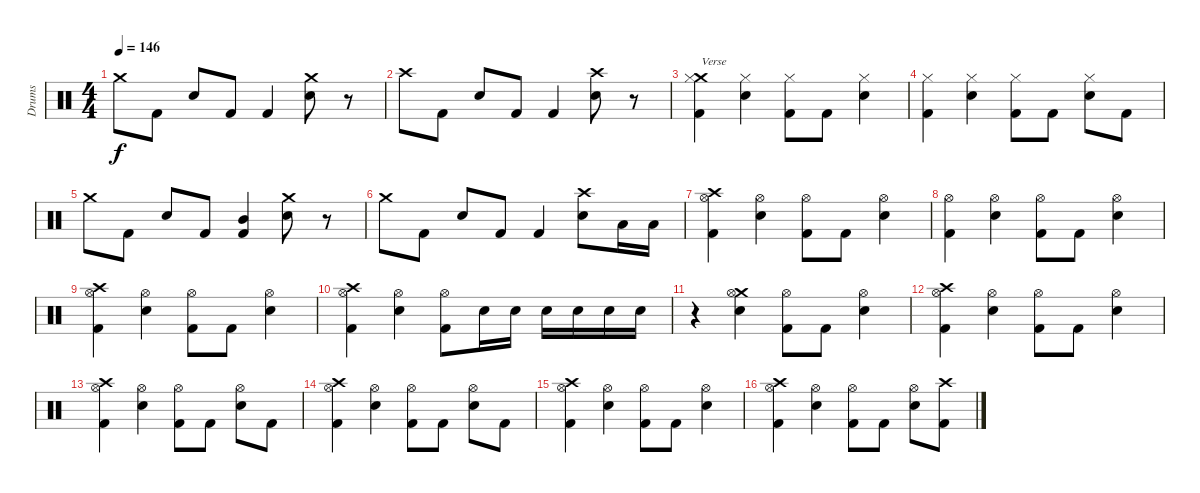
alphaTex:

\track ("Drums" "Drums") {instrument percussion}
\staff {score}
\articulation defaults
\ts (4 4)
\tempo 146
\clef neutral
\ks c "Crash medium (hit)".8{dy f} "Kick (hit) 2".8 "Electric Snare (hit)".8 "Kick (hit) 2".8 "Kick (hit) 2".4
("Crash medium (hit)" "Electric Snare (hit)").8 r.8 |
"Crash high (hit)".8 "Kick (hit) 2".8 "Electric Snare (hit)".8 "Kick (hit) 2".8 "Kick (hit) 2".4 ("Crash high (hit)" "Electric Snare (hit)").8 r.8 |
("Crash medium (hit)" "Hi-Hat (closed)" "Kick (hit) 2").4{txt "Verse"} ("Hi-Hat (closed)" "Electric Snare (hit)").4 ("Hi-Hat (closed)" "Kick (hit) 2").8 "Kick (hit) 2".8 ("Hi-Hat (closed)" "Electric Snare (hit)").4 |
("Hi-Hat (closed)" "Kick (hit) 2").4 ("Hi-Hat (closed)" "Electric Snare (hit)").4 ("Hi-Hat (closed)" "Kick (hit) 2").8 "Kick (hit) 2".8 ("Hi-Hat (closed)" "Electric Snare (hit)").8 "Kick (hit) 2".8 |
"Crash medium (hit)".8 "Kick (hit) 2".8 "Electric Snare (hit)".8 "Kick (hit) 2".8 ("Mid Tom (hit)" "Kick (hit) 2").4 ("Crash medium (hit)" "Electric Snare (hit)").8 r.8 |
"Crash medium (hit)".8 "Kick (hit) 2".8 "Electric Snare (hit)".8 "Kick (hit) 2".8 "Kick (hit) 2".4 ("Crash high (hit)" "Electric Snare (hit)").8 "Low Tom (hit)".16 "Low Tom (hit)".16 |
("Crash high (hit)" "Hi-Hat (open)" "Kick (hit) 2").4 ("Hi-Hat (open)" "Electric Snare (hit)").4 ("Hi-Hat (open)" "Kick (hit) 2").8 "Kick (hit) 2".8 ("Hi-Hat (open)" "Electric Snare (hit)").4 |
("Hi-Hat (open)" "Kick (hit) 2").4 ("Hi-Hat (open)" "Electric Snare (hit)").4 ("Hi-Hat (open)" "Kick (hit) 2").8 "Kick (hit) 2".8 ("Hi-Hat (open)" "Electric Snare (hit)").4 |
("Crash high (hit)" "Hi-Hat (open)" "Kick (hit) 2").4 ("Hi-Hat (open)" "Electric Snare (hit)").4 ("Hi-Hat (open)" "Kick (hit) 2").8 "Kick (hit) 2".8 ("Hi-Hat (open)" "Electric Snare (hit)").4 |
("Crash high (hit)" "Hi-Hat (open)" "Kick (hit) 2").4 ("Hi-Hat (open)" "Electric Snare (hit)").4 ("Hi-Hat (open)" "Kick (hit) 2").8 "Electric Snare (hit)".16 "Electric Snare (hit)".16 "Electric Snare (hit)".16 "Electric Snare (hit)".16 "Electric Snare (hit)".16 "Electric Snare (hit)".16 |
r.4 ("Crash medium (hit)" "Hi-Hat (open)" "Electric Snare (hit)").4 ("Hi-Hat (open)" "Kick (hit) 2").8 "Kick (hit) 2".8 ("Hi-Hat (open)" "Electric Snare (hit)").4 |
("Crash high (hit)" "Hi-Hat (open)" "Kick (hit) 2").4 ("Hi-Hat (open)" "Electric Snare (hit)").4 ("Hi-Hat (open)" "Kick (hit) 2").8 "Kick (hit) 2".8 ("Hi-Hat (open)" "Electric Snare (hit)").4 |
("Crash high (hit)" "Hi-Hat (open)" "Kick (hit) 2").4 ("Hi-Hat (open)" "Electric Snare (hit)").4 ("Hi-Hat (open)" "Kick (hit) 2").8 "Kick (hit) 2".8 ("Hi-Hat (open)" "Electric Snare (hit)").8 "Kick (hit) 2".8 |
("Crash high (hit)" "Hi-Hat (open)" "Kick (hit) 2").4 ("Hi-Hat (open)" "Electric Snare (hit)").4 ("Hi-Hat (open)" "Kick (hit) 2").8 "Kick (hit) 2".8 ("Hi-Hat (open)" "Electric Snare (hit)").8 "Kick (hit) 2".8 |
("Crash high (hit)" "Hi-Hat (open)" "Kick (hit) 2").4 ("Hi-Hat (open)" "Electric Snare (hit)").4 ("Hi-Hat (open)" "Kick (hit) 2").8 "Kick (hit) 2".8 ("Hi-Hat (open)" "Electric Snare (hit)").4 |
("Crash high (hit)" "Hi-Hat (open)" "Kick (hit) 2").4 ("Hi-Hat (open)" "Electric Snare (hit)").4 ("Hi-Hat (open)" "Kick (hit) 2").8 "Kick (hit) 2".8 ("Hi-Hat (open)" "Electric Snare (hit)").8 ("Crash high (hit)" "Kick (hit) 2").8
